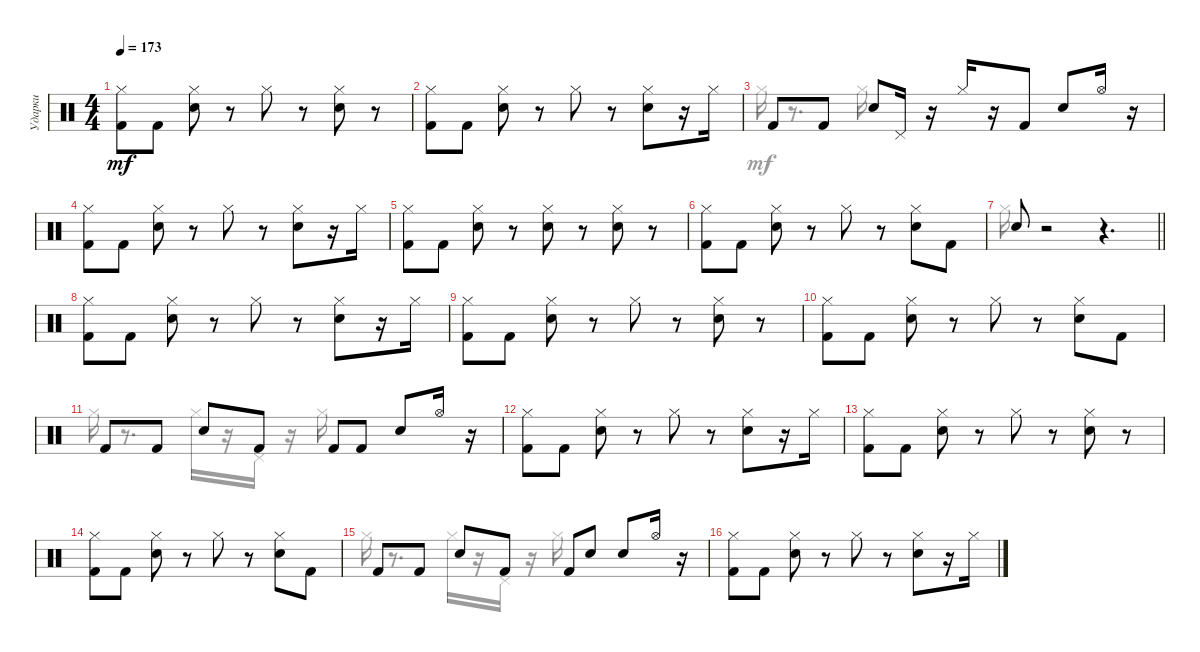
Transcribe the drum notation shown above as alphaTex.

\track ("Ударки" "Ударки") {instrument percussion}
\staff {score}
\articulation defaults
\voice
\ts (4 4)
\tempo 173
\clef neutral
\ks c
("Hi-Hat (closed)" "Kick (hit) 2").8{dy mf} "Kick (hit) 2".8 ("Snare (hit) 2" "Hi-Hat (closed)").8 r.8 "Hi-Hat (closed)".8 r.8 ("Hi-Hat (closed)" "Snare (hit) 2").8 r.8 |
("Kick (hit) 2" "Hi-Hat (closed)").8 "Kick (hit) 2".8 ("Snare (hit) 2" "Hi-Hat (closed)").8 r.8 "Hi-Hat (closed)".8 r.8 ("Snare (hit) 2" "Hi-Hat (closed)").8 r.16 "Hi-Hat (closed)".16 |
"Kick (hit) 2".8 "Kick (hit) 2".8 "Snare (hit) 2".8 "Pedal Hi-Hat (hit)".16 r.16 "Hi-Hat (closed)".16 r.16 "Kick (hit) 2".8 "Snare (hit) 2".8 "Hi-Hat (open)".16 r.16 |
("Hi-Hat (closed)" "Kick (hit) 2").8 "Kick (hit) 2".8 ("Snare (hit) 2" "Hi-Hat (closed)").8 r.8 "Hi-Hat (closed)".8 r.8 ("Hi-Hat (closed)" "Snare (hit) 2").8 r.16 "Hi-Hat (closed)".16 |
("Hi-Hat (closed)" "Kick (hit) 2").8 "Kick (hit) 2".8 ("Snare (hit) 2" "Hi-Hat (closed)").8 r.8 ("Snare (hit) 2" "Hi-Hat (closed)").8 r.8 ("Hi-Hat (closed)" "Snare (hit) 2").8 r.8 |
("Kick (hit) 2" "Hi-Hat (closed)").8 "Kick (hit) 2".8 ("Snare (hit) 2" "Hi-Hat (closed)").8 r.8 "Hi-Hat (closed)".8 r.8 ("Snare (hit) 2" "Hi-Hat (closed)").8 "Kick (hit) 2".8 |
\barLineRight lightlight "Snare (hit) 2".8
r.2 r.4{d} |
("Kick (hit) 2" "Hi-Hat (closed)").8 "Kick (hit) 2".8 ("Hi-Hat (closed)" "Snare (hit) 2").8 r.8 "Hi-Hat (closed)".8 r.8 ("Snare (hit) 2" "Hi-Hat (closed)").8 r.16 "Hi-Hat (closed)".16 |
("Kick (hit) 2" "Hi-Hat (closed)").8 "Kick (hit) 2".8 ("Snare (hit) 2" "Hi-Hat (closed)").8 r.8 "Hi-Hat (closed)".8 r.8 ("Snare (hit) 2" "Hi-Hat (closed)").8 r.8 |
("Kick (hit) 2" "Hi-Hat (closed)").8 "Kick (hit) 2".8 ("Snare (hit) 2" "Hi-Hat (closed)").8 r.8 "Hi-Hat (closed)".8 r.8 ("Snare (hit) 2" "Hi-Hat (closed)").8 "Kick (hit) 2".8 |
"Kick (hit) 2".8 "Kick (hit) 2".8 "Snare (hit) 2".8 "Kick (hit) 2".8 "Kick (hit) 2".8 "Kick (hit) 2".8 "Snare (hit) 2".8 "Hi-Hat (open)".16 r.16 |
("Kick (hit) 2" "Hi-Hat (closed)").8 "Kick (hit) 2".8 ("Hi-Hat (closed)" "Snare (hit) 2").8 r.8 "Hi-Hat (closed)".8 r.8 ("Snare (hit) 2" "Hi-Hat (closed)").8 r.16 "Hi-Hat (closed)".16 |
("Hi-Hat (closed)" "Kick (hit) 2").8 "Kick (hit) 2".8 ("Hi-Hat (closed)" "Snare (hit) 2").8 r.8 "Hi-Hat (closed)".8 r.8 ("Snare (hit) 2" "Hi-Hat (closed)").8 r.8 |
("Kick (hit) 2" "Hi-Hat (closed)").8 "Kick (hit) 2".8 ("Snare (hit) 2" "Hi-Hat (closed)").8 r.8 "Hi-Hat (closed)".8 r.8 ("Hi-Hat (closed)" "Snare (hit) 2").8 "Kick (hit) 2".8 |
"Kick (hit) 2".8 "Kick (hit) 2".8 "Snare (hit) 2".8 "Kick (hit) 2".8 "Kick (hit) 2".8 "Snare (hit) 2".8 "Snare (hit) 2".8 "Hi-Hat (open)".16 r.16 |
("Kick (hit) 2" "Hi-Hat (closed)").8 "Kick (hit) 2".8 ("Hi-Hat (closed)" "Snare (hit) 2").8 r.8 "Hi-Hat (closed)".8 r.8 ("Snare (hit) 2" "Hi-Hat (closed)").8 r.16 "Hi-Hat (closed)".16
\voice
\clef neutral
\ottava regular
\simile none
\ks c
|
|
"Hi-Hat (closed)".16 r.8{d} "Hi-Hat (closed)".16 |
|
|
|
\barLineRight lightlight "Hi-Hat (closed)".16
|
|
|
|
"Hi-Hat (closed)".16 r.8{d} "Hi-Hat (closed)".16 r.16 "Pedal Hi-Hat (hit)".16 r.16 "Hi-Hat (closed)".16 |
|
|
|
"Hi-Hat (closed)".16 r.8{d} "Hi-Hat (closed)".16 r.16 "Pedal Hi-Hat (hit)".16 r.16 "Hi-Hat (closed)".16 |
